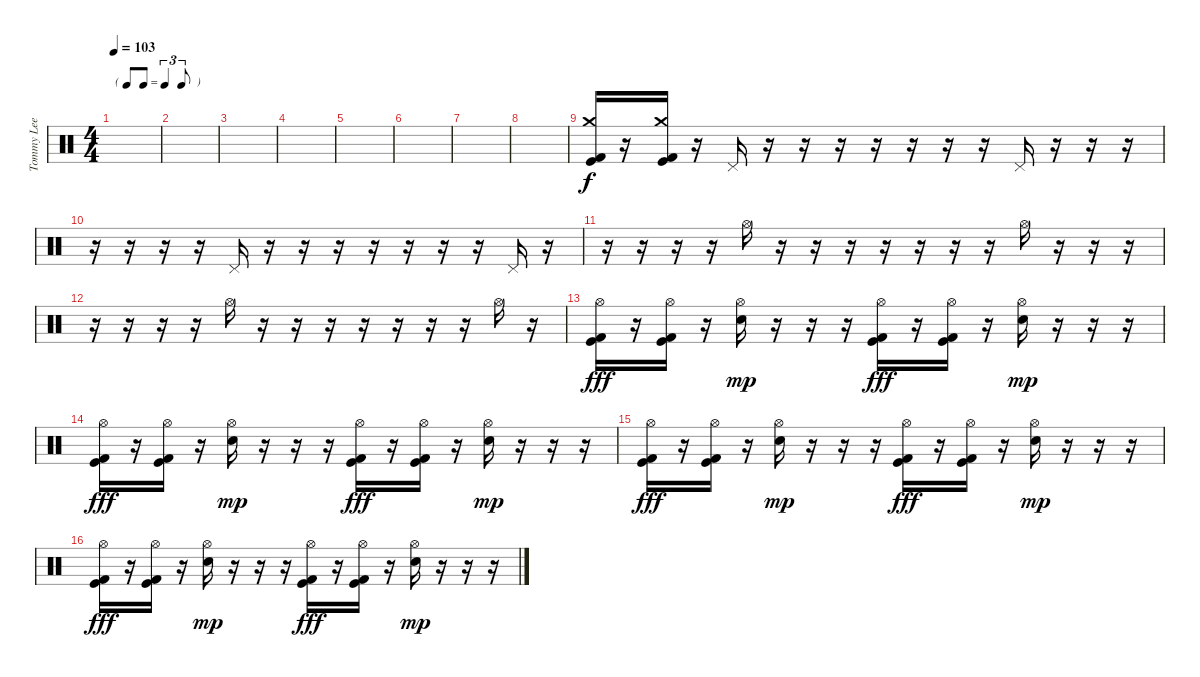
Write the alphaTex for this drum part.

\track ("Tommy Lee" "Tommy Lee") {instrument percussion}
\staff {score}
\articulation defaults
\ts (4 4)
\tf triplet8th
\tempo 103
\clef neutral
\ks c
|
|
|
|
|
|
|
|
("Kick (hit) 2" "Crash medium (hit)" "Kick (hit)").16 r.16 ("Kick (hit) 2" "Crash medium (hit)" "Kick (hit)").16 r.16 "Pedal Hi-Hat (hit)".16{dy f} r.16 r.16 r.16 r.16 r.16 r.16 r.16 "Pedal Hi-Hat (hit)".16 r.16 r.16 r.16 |
r.16 r.16 r.16 r.16 "Pedal Hi-Hat (hit)".16 r.16 r.16 r.16 r.16 r.16 r.16 r.16 "Pedal Hi-Hat (hit)".16 r.16 |
r.16 r.16 r.16 r.16 "Hi-Hat (open)".16 r.16 r.16 r.16 r.16 r.16 r.16 r.16 "Hi-Hat (open)".16 r.16 r.16 r.16 |
r.16 r.16 r.16 r.16 "Hi-Hat (open)".16 r.16 r.16 r.16 r.16 r.16 r.16 r.16 "Hi-Hat (open)".16 r.16 |
("Hi-Hat (open)" "Kick (hit) 2" "Kick (hit)").16{dy fff} r.16 ("Hi-Hat (open)" "Kick (hit) 2" "Kick (hit)").16 r.16 ("Hi-Hat (open)" "Snare (hit) 2").16{dy mp} r.16 r.16 r.16 ("Hi-Hat (open)" "Kick (hit) 2" "Kick (hit)").16{dy fff} r.16 ("Hi-Hat (open)" "Kick (hit) 2" "Kick (hit)").16 r.16 ("Hi-Hat (open)" "Snare (hit) 2").16{dy mp} r.16 r.16 r.16 |
("Hi-Hat (open)" "Kick (hit) 2" "Kick (hit)").16{dy fff} r.16 ("Hi-Hat (open)" "Kick (hit) 2" "Kick (hit)").16 r.16 ("Hi-Hat (open)" "Snare (hit) 2").16{dy mp} r.16 r.16 r.16 ("Hi-Hat (open)" "Kick (hit) 2" "Kick (hit)").16{dy fff} r.16 ("Hi-Hat (open)" "Kick (hit) 2" "Kick (hit)").16 r.16 ("Hi-Hat (open)" "Snare (hit) 2").16{dy mp} r.16 r.16 r.16 |
("Hi-Hat (open)" "Kick (hit) 2" "Kick (hit)").16{dy fff} r.16 ("Hi-Hat (open)" "Kick (hit) 2" "Kick (hit)").16 r.16 ("Hi-Hat (open)" "Snare (hit) 2").16{dy mp} r.16 r.16 r.16 ("Hi-Hat (open)" "Kick (hit) 2" "Kick (hit)").16{dy fff} r.16 ("Hi-Hat (open)" "Kick (hit) 2" "Kick (hit)").16 r.16 ("Hi-Hat (open)" "Snare (hit) 2").16{dy mp} r.16 r.16 r.16 |
("Hi-Hat (open)" "Kick (hit) 2" "Kick (hit)").16{dy fff} r.16 ("Hi-Hat (open)" "Kick (hit) 2" "Kick (hit)").16 r.16 ("Hi-Hat (open)" "Snare (hit) 2").16{dy mp} r.16 r.16 r.16 ("Hi-Hat (open)" "Kick (hit) 2" "Kick (hit)").16{dy fff} r.16 ("Hi-Hat (open)" "Kick (hit) 2" "Kick (hit)").16 r.16 ("Hi-Hat (open)" "Snare (hit) 2").16{dy mp} r.16 r.16 r.16
